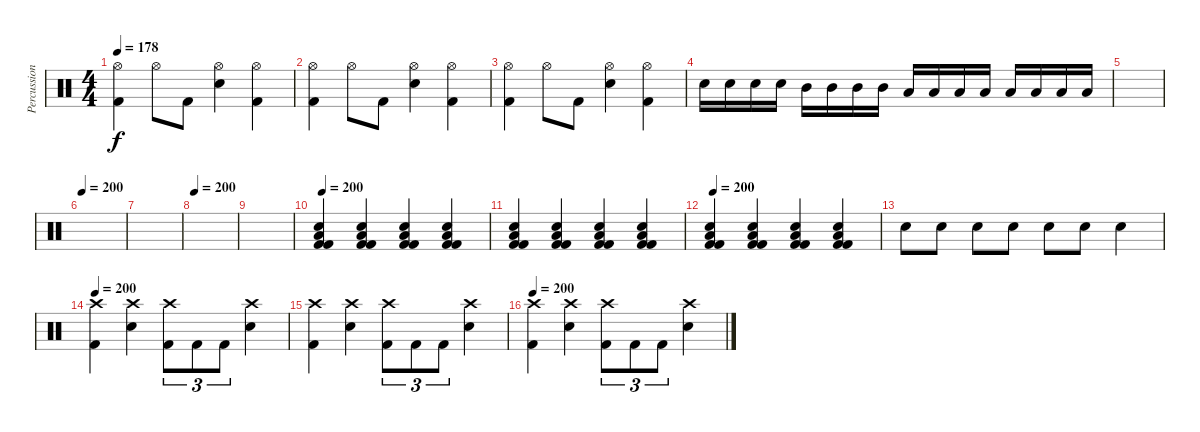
\track ("Percussion" "Percussion") {instrument percussion}
\staff {score}
\articulation defaults
\ts (4 4)
\tempo 178
\clef neutral
\ks c
("Hi-Hat (open)" "Kick (hit) 2").4{dy f} "Hi-Hat (open)".8 "Kick (hit) 2".8 ("Hi-Hat (open)" "Electric Snare (hit)").4 ("Hi-Hat (open)" "Kick (hit) 2").4 |
("Hi-Hat (open)" "Kick (hit) 2").4 "Hi-Hat (open)".8 "Kick (hit) 2".8 ("Hi-Hat (open)" "Electric Snare (hit)").4 ("Hi-Hat (open)" "Kick (hit) 2").4 |
("Hi-Hat (open)" "Kick (hit) 2").4 "Hi-Hat (open)".8 "Kick (hit) 2".8 ("Hi-Hat (open)" "Electric Snare (hit)").4 ("Hi-Hat (open)" "Kick (hit) 2").4 |
"Electric Snare (hit)".16 "Electric Snare (hit)".16 "Electric Snare (hit)".16 "Electric Snare (hit)".16 "Mid Tom (hit)".16 "Mid Tom (hit)".16 "Mid Tom (hit)".16 "Mid Tom (hit)".16 "Low Tom (hit)".16 "Low Tom (hit)".16 "Low Tom (hit)".16 "Low Tom (hit)".16 "Low Floor Tom (hit)".16 "Low Floor Tom (hit)".16 "Low Floor Tom (hit)".16 "Low Floor Tom (hit)".16 |
|
\tempo 200
|
|
\tempo 200
|
|
\tempo 200
("Low Floor Tom (hit)" "Electric Snare (hit)" "Kick (hit) 2" "Kick (hit) 2").4 ("Low Floor Tom (hit)" "Electric Snare (hit)" "Kick (hit) 2" "Kick (hit) 2").4 ("Low Floor Tom (hit)" "Electric Snare (hit)" "Kick (hit) 2" "Kick (hit) 2").4 ("Low Floor Tom (hit)" "Electric Snare (hit)" "Kick (hit) 2" "Kick (hit) 2").4 |
("Low Floor Tom (hit)" "Electric Snare (hit)" "Kick (hit) 2" "Kick (hit) 2").4 ("Low Floor Tom (hit)" "Electric Snare (hit)" "Kick (hit) 2" "Kick (hit) 2").4 ("Low Floor Tom (hit)" "Electric Snare (hit)" "Kick (hit) 2" "Kick (hit) 2").4 ("Low Floor Tom (hit)" "Electric Snare (hit)" "Kick (hit) 2" "Kick (hit) 2").4 |
\tempo 200
("Low Floor Tom (hit)" "Electric Snare (hit)" "Kick (hit) 2" "Kick (hit) 2").4 ("Low Floor Tom (hit)" "Electric Snare (hit)" "Kick (hit) 2" "Kick (hit) 2").4 ("Low Floor Tom (hit)" "Electric Snare (hit)" "Kick (hit) 2" "Kick (hit) 2").4 ("Low Floor Tom (hit)" "Electric Snare (hit)" "Kick (hit) 2" "Kick (hit) 2").4 |
"Electric Snare (hit)".8 "Electric Snare (hit)".8 "Electric Snare (hit)".8 "Electric Snare (hit)".8 "Electric Snare (hit)".8 "Electric Snare (hit)".8 "Electric Snare (hit)".4 |
\tempo 200
("Crash high (hit)" "Kick (hit) 2").4 ("Crash high (hit)" "Electric Snare (hit)").4 ("Crash high (hit)" "Kick (hit) 2").8{tu (3 2)} "Kick (hit) 2".8{tu (3 2)} "Kick (hit) 2".8{tu (3 2)} ("Crash high (hit)" "Electric Snare (hit)").4 |
("Crash high (hit)" "Kick (hit) 2").4 ("Crash high (hit)" "Electric Snare (hit)").4 ("Crash high (hit)" "Kick (hit) 2").8{tu (3 2)} "Kick (hit) 2".8{tu (3 2)} "Kick (hit) 2".8{tu (3 2)} ("Crash high (hit)" "Electric Snare (hit)").4 |
\tempo 200
("Crash high (hit)" "Kick (hit) 2").4 ("Crash high (hit)" "Electric Snare (hit)").4 ("Crash high (hit)" "Kick (hit) 2").8{tu (3 2)} "Kick (hit) 2".8{tu (3 2)} "Kick (hit) 2".8{tu (3 2)} ("Crash high (hit)" "Electric Snare (hit)").4
